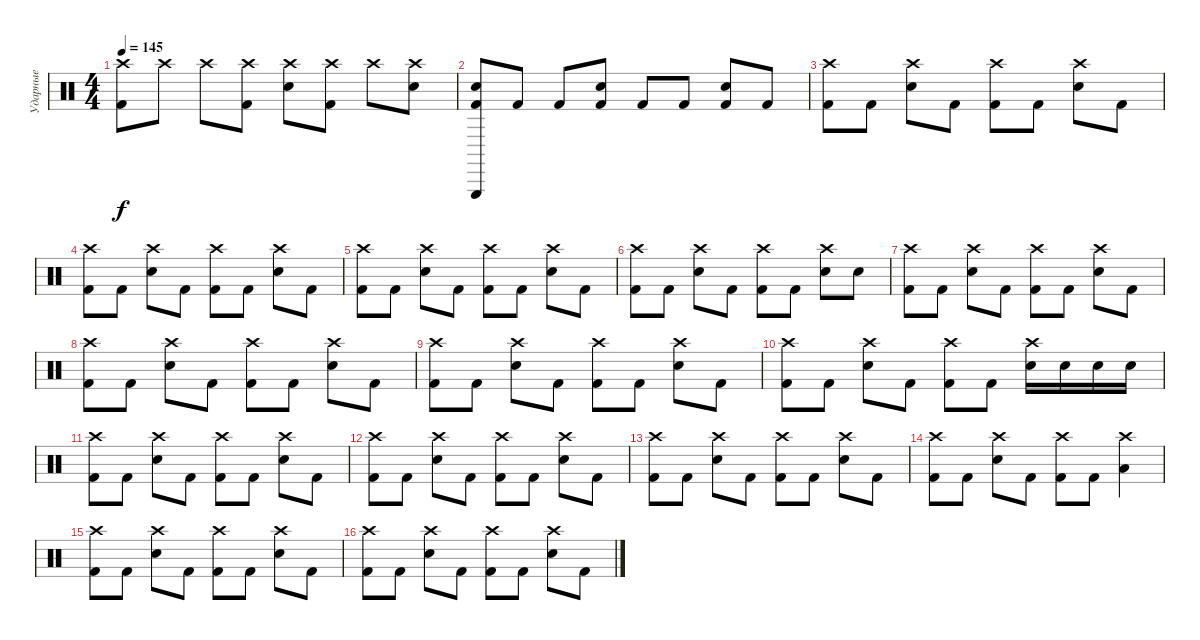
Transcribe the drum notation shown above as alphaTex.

\track ("Ударные" "Ударные") {instrument percussion}
\staff {score}
\articulation defaults
\ts (4 4)
\tempo 145
\clef neutral
\ks c
("Crash high (hit)" "Kick (hit) 2").8{dy f} "Crash high (hit)".8 "Crash high (hit)".8 ("Crash high (hit)" "Kick (hit) 2").8 ("Crash high (hit)" "Electric Snare (hit)").8 ("Crash high (hit)" "Kick (hit) 2").8 "Crash high (hit)".8 ("Crash high (hit)" "Electric Snare (hit)").8 |
("Triangle (hit)" "Electric Snare (hit)" "Kick (hit) 2").8 "Kick (hit) 2".8 "Kick (hit) 2".8 ("Electric Snare (hit)" "Kick (hit) 2").8 "Kick (hit) 2".8 "Kick (hit) 2".8 ("Electric Snare (hit)" "Kick (hit) 2").8 "Kick (hit) 2".8 |
("Crash high (hit)" "Kick (hit) 2").8 "Kick (hit) 2".8 ("Crash high (hit)" "Electric Snare (hit)").8 "Kick (hit) 2".8 ("Crash high (hit)" "Kick (hit) 2").8 "Kick (hit) 2".8 ("Crash high (hit)" "Electric Snare (hit)").8 "Kick (hit) 2".8 |
("Crash high (hit)" "Kick (hit) 2").8 "Kick (hit) 2".8 ("Crash high (hit)" "Electric Snare (hit)").8 "Kick (hit) 2".8 ("Crash high (hit)" "Kick (hit) 2").8 "Kick (hit) 2".8 ("Crash high (hit)" "Electric Snare (hit)").8 "Kick (hit) 2".8 |
("Crash high (hit)" "Kick (hit) 2").8 "Kick (hit) 2".8 ("Crash high (hit)" "Electric Snare (hit)").8 "Kick (hit) 2".8 ("Crash high (hit)" "Kick (hit) 2").8 "Kick (hit) 2".8 ("Crash high (hit)" "Electric Snare (hit)").8 "Kick (hit) 2".8 |
("Crash high (hit)" "Kick (hit) 2").8 "Kick (hit) 2".8 ("Crash high (hit)" "Electric Snare (hit)").8 "Kick (hit) 2".8 ("Crash high (hit)" "Kick (hit) 2").8 "Kick (hit) 2".8 ("Crash high (hit)" "Electric Snare (hit)").8 "Electric Snare (hit)".8 |
("Crash high (hit)" "Kick (hit) 2").8 "Kick (hit) 2".8 ("Crash high (hit)" "Electric Snare (hit)").8 "Kick (hit) 2".8 ("Crash high (hit)" "Kick (hit) 2").8 "Kick (hit) 2".8 ("Crash high (hit)" "Electric Snare (hit)").8 "Kick (hit) 2".8 |
("Crash high (hit)" "Kick (hit) 2").8 "Kick (hit) 2".8 ("Crash high (hit)" "Electric Snare (hit)").8 "Kick (hit) 2".8 ("Crash high (hit)" "Kick (hit) 2").8 "Kick (hit) 2".8 ("Crash high (hit)" "Electric Snare (hit)").8 "Kick (hit) 2".8 |
("Crash high (hit)" "Kick (hit) 2").8 "Kick (hit) 2".8 ("Crash high (hit)" "Electric Snare (hit)").8 "Kick (hit) 2".8 ("Crash high (hit)" "Kick (hit) 2").8 "Kick (hit) 2".8 ("Crash high (hit)" "Electric Snare (hit)").8 "Kick (hit) 2".8 |
("Crash high (hit)" "Kick (hit) 2").8 "Kick (hit) 2".8 ("Crash high (hit)" "Electric Snare (hit)").8 "Kick (hit) 2".8 ("Crash high (hit)" "Kick (hit) 2").8 "Kick (hit) 2".8 ("Crash high (hit)" "Electric Snare (hit)").16 "Electric Snare (hit)".16 "Electric Snare (hit)".16 "Electric Snare (hit)".16 |
("Crash high (hit)" "Kick (hit) 2").8 "Kick (hit) 2".8 ("Crash high (hit)" "Electric Snare (hit)").8 "Kick (hit) 2".8 ("Crash high (hit)" "Kick (hit) 2").8 "Kick (hit) 2".8 ("Crash high (hit)" "Electric Snare (hit)").8 "Kick (hit) 2".8 |
("Crash high (hit)" "Kick (hit) 2").8 "Kick (hit) 2".8 ("Crash high (hit)" "Electric Snare (hit)").8 "Kick (hit) 2".8 ("Crash high (hit)" "Kick (hit) 2").8 "Kick (hit) 2".8 ("Crash high (hit)" "Electric Snare (hit)").8 "Kick (hit) 2".8 |
("Crash high (hit)" "Kick (hit) 2").8 "Kick (hit) 2".8 ("Crash high (hit)" "Electric Snare (hit)").8 "Kick (hit) 2".8 ("Crash high (hit)" "Kick (hit) 2").8 "Kick (hit) 2".8 ("Crash high (hit)" "Electric Snare (hit)").8 "Kick (hit) 2".8 |
("Crash high (hit)" "Kick (hit) 2").8 "Kick (hit) 2".8 ("Crash high (hit)" "Electric Snare (hit)").8 "Kick (hit) 2".8 ("Crash high (hit)" "Kick (hit) 2").8 "Kick (hit) 2".8 ("Crash high (hit)" "Low Tom (hit)").4 |
("Crash high (hit)" "Kick (hit) 2").8 "Kick (hit) 2".8 ("Crash high (hit)" "Electric Snare (hit)").8 "Kick (hit) 2".8 ("Crash high (hit)" "Kick (hit) 2").8 "Kick (hit) 2".8 ("Crash high (hit)" "Electric Snare (hit)").8 "Kick (hit) 2".8 |
("Crash high (hit)" "Kick (hit) 2").8 "Kick (hit) 2".8 ("Crash high (hit)" "Electric Snare (hit)").8 "Kick (hit) 2".8 ("Crash high (hit)" "Kick (hit) 2").8 "Kick (hit) 2".8 ("Crash high (hit)" "Electric Snare (hit)").8 "Kick (hit) 2".8
